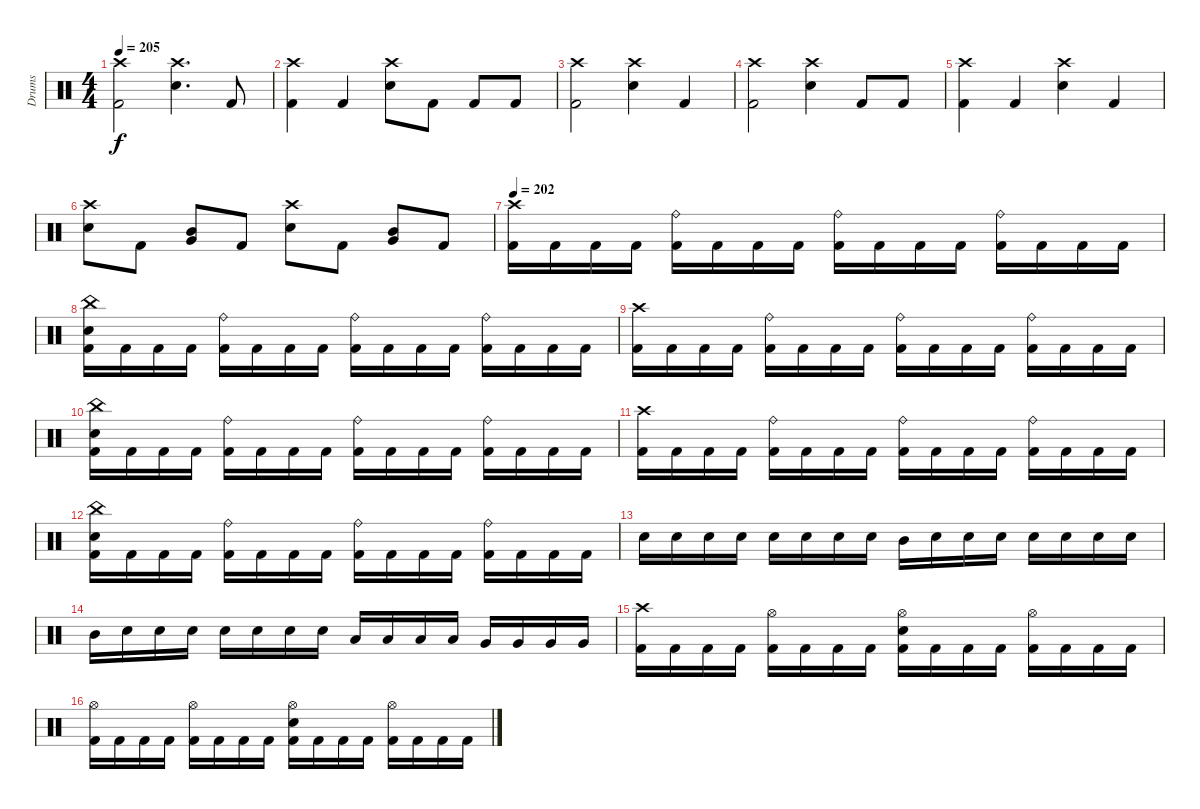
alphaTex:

\track ("Drums" "Drums") {instrument percussion}
\staff {score}
\articulation defaults
\ts (4 4)
\tempo 205
\clef neutral
\ks c
("Crash high (hit)" "Kick (hit) 2").2{dy f} ("Crash high (hit)" "Snare (hit) 2").4{d} "Kick (hit) 2".8 |
("Crash high (hit)" "Kick (hit) 2").4 "Kick (hit) 2".4 ("Crash high (hit)" "Snare (hit) 2").8 "Kick (hit) 2".8 "Kick (hit) 2".8 "Kick (hit) 2".8 |
("Crash high (hit)" "Kick (hit) 2").2 ("Crash high (hit)" "Snare (hit) 2").4 "Kick (hit) 2".4 |
("Crash high (hit)" "Kick (hit) 2").2 ("Crash high (hit)" "Snare (hit) 2").4 "Kick (hit) 2".8 "Kick (hit) 2".8 |
("Crash high (hit)" "Kick (hit) 2").4 "Kick (hit) 2".4 ("Crash high (hit)" "Snare (hit) 2").4 "Kick (hit) 2".4 |
("Crash high (hit)" "Snare (hit) 2").8 "Kick (hit) 2".8 ("Mid Tom (hit)" "Very Low Tom (hit)").8 "Kick (hit) 2".8 ("Crash high (hit)" "Snare (hit) 2").8 "Kick (hit) 2".8 ("Mid Tom (hit)" "Very Low Tom (hit)").8 "Kick (hit) 2".8 |
\tempo 202
("Crash high (hit)" "Kick (hit) 2").16 "Kick (hit) 2".16 "Kick (hit) 2".16 "Kick (hit) 2".16 ("Ride (bell)" "Kick (hit) 2").16 "Kick (hit) 2".16 "Kick (hit) 2".16 "Kick (hit) 2".16 ("Ride (bell)" "Kick (hit) 2").16 "Kick (hit) 2".16 "Kick (hit) 2".16 "Kick (hit) 2".16 ("Ride (bell)" "Kick (hit) 2").16 "Kick (hit) 2".16 "Kick (hit) 2".16 "Kick (hit) 2".16 |
("China (hit)" "Snare (hit) 2" "Kick (hit) 2").16 "Kick (hit) 2".16 "Kick (hit) 2".16 "Kick (hit) 2".16 ("Ride (bell)" "Kick (hit) 2").16 "Kick (hit) 2".16 "Kick (hit) 2".16 "Kick (hit) 2".16 ("Ride (bell)" "Kick (hit) 2").16 "Kick (hit) 2".16 "Kick (hit) 2".16 "Kick (hit) 2".16 ("Ride (bell)" "Kick (hit) 2").16 "Kick (hit) 2".16 "Kick (hit) 2".16 "Kick (hit) 2".16 |
("Crash high (hit)" "Kick (hit) 2").16 "Kick (hit) 2".16 "Kick (hit) 2".16 "Kick (hit) 2".16 ("Ride (bell)" "Kick (hit) 2").16 "Kick (hit) 2".16 "Kick (hit) 2".16 "Kick (hit) 2".16 ("Ride (bell)" "Kick (hit) 2").16 "Kick (hit) 2".16 "Kick (hit) 2".16 "Kick (hit) 2".16 ("Ride (bell)" "Kick (hit) 2").16 "Kick (hit) 2".16 "Kick (hit) 2".16 "Kick (hit) 2".16 |
("China (hit)" "Snare (hit) 2" "Kick (hit) 2").16 "Kick (hit) 2".16 "Kick (hit) 2".16 "Kick (hit) 2".16 ("Ride (bell)" "Kick (hit) 2").16 "Kick (hit) 2".16 "Kick (hit) 2".16 "Kick (hit) 2".16 ("Ride (bell)" "Kick (hit) 2").16 "Kick (hit) 2".16 "Kick (hit) 2".16 "Kick (hit) 2".16 ("Ride (bell)" "Kick (hit) 2").16 "Kick (hit) 2".16 "Kick (hit) 2".16 "Kick (hit) 2".16 |
("Crash high (hit)" "Kick (hit) 2").16 "Kick (hit) 2".16 "Kick (hit) 2".16 "Kick (hit) 2".16 ("Ride (bell)" "Kick (hit) 2").16 "Kick (hit) 2".16 "Kick (hit) 2".16 "Kick (hit) 2".16 ("Ride (bell)" "Kick (hit) 2").16 "Kick (hit) 2".16 "Kick (hit) 2".16 "Kick (hit) 2".16 ("Ride (bell)" "Kick (hit) 2").16 "Kick (hit) 2".16 "Kick (hit) 2".16 "Kick (hit) 2".16 |
("China (hit)" "Snare (hit) 2" "Kick (hit) 2").16 "Kick (hit) 2".16 "Kick (hit) 2".16 "Kick (hit) 2".16 ("Ride (bell)" "Kick (hit) 2").16 "Kick (hit) 2".16 "Kick (hit) 2".16 "Kick (hit) 2".16 ("Ride (bell)" "Kick (hit) 2").16 "Kick (hit) 2".16 "Kick (hit) 2".16 "Kick (hit) 2".16 ("Ride (bell)" "Kick (hit) 2").16 "Kick (hit) 2".16 "Kick (hit) 2".16 "Kick (hit) 2".16 |
"Snare (hit) 2".16 "Snare (hit) 2".16 "Snare (hit) 2".16 "Snare (hit) 2".16 "Snare (hit) 2".16 "Snare (hit) 2".16 "Snare (hit) 2".16 "Snare (hit) 2".16 "Mid Tom (hit)".16 "Snare (hit) 2".16 "Snare (hit) 2".16 "Snare (hit) 2".16 "Snare (hit) 2".16 "Snare (hit) 2".16 "Snare (hit) 2".16 "Snare (hit) 2".16 |
"Mid Tom (hit)".16 "Snare (hit) 2".16 "Snare (hit) 2".16 "Snare (hit) 2".16 "Snare (hit) 2".16 "Snare (hit) 2".16 "Snare (hit) 2".16 "Snare (hit) 2".16 "Low Tom (hit)".16 "Low Tom (hit)".16 "Low Tom (hit)".16 "Low Tom (hit)".16 "Very Low Tom (hit)".16 "Very Low Tom (hit)".16 "Very Low Tom (hit)".16 "Very Low Tom (hit)".16 |
("Crash high (hit)" "Kick (hit) 2").16 "Kick (hit) 2".16 "Kick (hit) 2".16 "Kick (hit) 2".16 ("Hi-Hat (open)" "Kick (hit) 2").16 "Kick (hit) 2".16 "Kick (hit) 2".16 "Kick (hit) 2".16 ("Hi-Hat (open)" "Snare (hit) 2" "Kick (hit) 2").16 "Kick (hit) 2".16 "Kick (hit) 2".16 "Kick (hit) 2".16 ("Hi-Hat (open)" "Kick (hit) 2").16 "Kick (hit) 2".16 "Kick (hit) 2".16 "Kick (hit) 2".16 |
("Hi-Hat (open)" "Kick (hit) 2").16 "Kick (hit) 2".16 "Kick (hit) 2".16 "Kick (hit) 2".16 ("Hi-Hat (open)" "Kick (hit) 2").16 "Kick (hit) 2".16 "Kick (hit) 2".16 "Kick (hit) 2".16 ("Hi-Hat (open)" "Snare (hit) 2" "Kick (hit) 2").16 "Kick (hit) 2".16 "Kick (hit) 2".16 "Kick (hit) 2".16 ("Hi-Hat (open)" "Kick (hit) 2").16 "Kick (hit) 2".16 "Kick (hit) 2".16 "Kick (hit) 2".16
